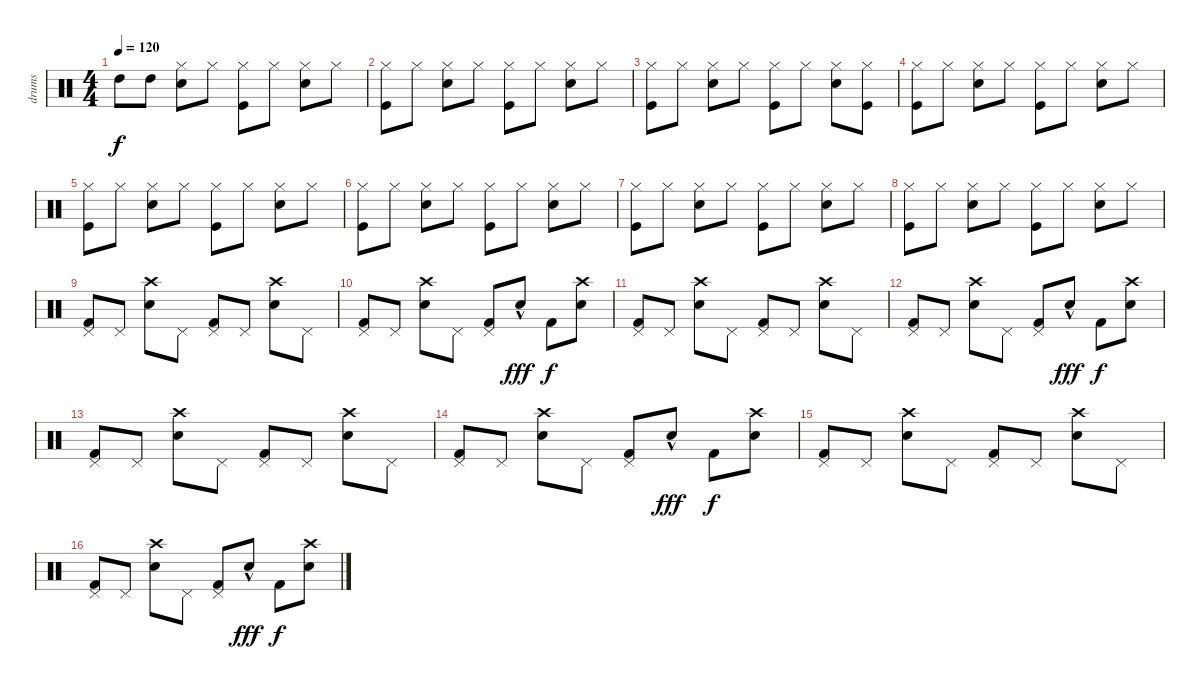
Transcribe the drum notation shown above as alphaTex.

\track ("drums" "drums") {instrument percussion}
\staff {score}
\articulation defaults
\ts (4 4)
\tempo 120
\clef neutral
\ks c "High Tom (hit)".8{dy f} "High Tom (hit)".8
("Hi-Hat (closed)" "Snare (hit) 2").8 "Hi-Hat (closed)".8 ("Hi-Hat (closed)" "Kick (hit)").8 "Hi-Hat (closed)".8 ("Hi-Hat (closed)" "Snare (hit) 2").8 "Hi-Hat (closed)".8 |
("Hi-Hat (closed)" "Kick (hit)").8 "Hi-Hat (closed)".8 ("Hi-Hat (closed)" "Snare (hit) 2").8 "Hi-Hat (closed)".8 ("Hi-Hat (closed)" "Kick (hit)").8 "Hi-Hat (closed)".8 ("Hi-Hat (closed)" "Snare (hit) 2").8 "Hi-Hat (closed)".8 |
("Hi-Hat (closed)" "Kick (hit)").8 "Hi-Hat (closed)".8 ("Hi-Hat (closed)" "Snare (hit) 2").8 "Hi-Hat (closed)".8 ("Hi-Hat (closed)" "Kick (hit)").8 "Hi-Hat (closed)".8 ("Hi-Hat (closed)" "Snare (hit) 2").8 ("Hi-Hat (closed)" "Kick (hit)").8 |
("Hi-Hat (closed)" "Kick (hit)").8 "Hi-Hat (closed)".8 ("Hi-Hat (closed)" "Snare (hit) 2").8 "Hi-Hat (closed)".8 ("Hi-Hat (closed)" "Kick (hit)").8 "Hi-Hat (closed)".8 ("Hi-Hat (closed)" "Snare (hit) 2").8 "Hi-Hat (closed)".8 |
("Hi-Hat (closed)" "Kick (hit)").8 "Hi-Hat (closed)".8 ("Hi-Hat (closed)" "Snare (hit) 2").8 "Hi-Hat (closed)".8 ("Hi-Hat (closed)" "Kick (hit)").8 "Hi-Hat (closed)".8 ("Hi-Hat (closed)" "Snare (hit) 2").8 "Hi-Hat (closed)".8 |
("Hi-Hat (closed)" "Kick (hit)").8 "Hi-Hat (closed)".8 ("Hi-Hat (closed)" "Snare (hit) 2").8 "Hi-Hat (closed)".8 ("Hi-Hat (closed)" "Kick (hit)").8 "Hi-Hat (closed)".8 ("Hi-Hat (closed)" "Snare (hit) 2").8 "Hi-Hat (closed)".8 |
("Hi-Hat (closed)" "Kick (hit)").8 "Hi-Hat (closed)".8 ("Hi-Hat (closed)" "Snare (hit) 2").8 "Hi-Hat (closed)".8 ("Hi-Hat (closed)" "Kick (hit)").8 "Hi-Hat (closed)".8 ("Hi-Hat (closed)" "Snare (hit) 2").8 "Hi-Hat (closed)".8 |
("Hi-Hat (closed)" "Kick (hit)").8 "Hi-Hat (closed)".8 ("Hi-Hat (closed)" "Snare (hit) 2").8 "Hi-Hat (closed)".8 ("Hi-Hat (closed)" "Kick (hit)").8 "Hi-Hat (closed)".8 ("Hi-Hat (closed)" "Snare (hit) 2").8 "Hi-Hat (closed)".8 |
("Pedal Hi-Hat (hit)" "Kick (hit) 2").8 "Pedal Hi-Hat (hit)".8 ("Crash high (hit)" "Electric Snare (hit)").8 "Pedal Hi-Hat (hit)".8 ("Pedal Hi-Hat (hit)" "Kick (hit) 2").8 "Pedal Hi-Hat (hit)".8 ("Crash high (hit)" "Electric Snare (hit)").8 "Pedal Hi-Hat (hit)".8 |
("Pedal Hi-Hat (hit)" "Kick (hit) 2").8 "Pedal Hi-Hat (hit)".8 ("Crash high (hit)" "Electric Snare (hit)").8 "Pedal Hi-Hat (hit)".8 ("Pedal Hi-Hat (hit)" "Kick (hit) 2").8 "Electric Snare (hit)"{hac}.8{dy fff} "Kick (hit) 2".8{dy f} ("Crash high (hit)" "Electric Snare (hit)").8 |
("Pedal Hi-Hat (hit)" "Kick (hit) 2").8 "Pedal Hi-Hat (hit)".8 ("Crash high (hit)" "Electric Snare (hit)").8 "Pedal Hi-Hat (hit)".8 ("Pedal Hi-Hat (hit)" "Kick (hit) 2").8 "Pedal Hi-Hat (hit)".8 ("Crash high (hit)" "Electric Snare (hit)").8 "Pedal Hi-Hat (hit)".8 |
("Pedal Hi-Hat (hit)" "Kick (hit) 2").8 "Pedal Hi-Hat (hit)".8 ("Crash high (hit)" "Electric Snare (hit)").8 "Pedal Hi-Hat (hit)".8 ("Pedal Hi-Hat (hit)" "Kick (hit) 2").8 "Electric Snare (hit)"{hac}.8{dy fff} "Kick (hit) 2".8{dy f} ("Crash high (hit)" "Electric Snare (hit)").8 |
("Pedal Hi-Hat (hit)" "Kick (hit) 2").8 "Pedal Hi-Hat (hit)".8 ("Crash high (hit)" "Electric Snare (hit)").8 "Pedal Hi-Hat (hit)".8 ("Pedal Hi-Hat (hit)" "Kick (hit) 2").8 "Pedal Hi-Hat (hit)".8 ("Crash high (hit)" "Electric Snare (hit)").8 "Pedal Hi-Hat (hit)".8 |
("Pedal Hi-Hat (hit)" "Kick (hit) 2").8 "Pedal Hi-Hat (hit)".8 ("Crash high (hit)" "Electric Snare (hit)").8 "Pedal Hi-Hat (hit)".8 ("Pedal Hi-Hat (hit)" "Kick (hit) 2").8 "Electric Snare (hit)"{hac}.8{dy fff} "Kick (hit) 2".8{dy f} ("Crash high (hit)" "Electric Snare (hit)").8 |
("Pedal Hi-Hat (hit)" "Kick (hit) 2").8 "Pedal Hi-Hat (hit)".8 ("Crash high (hit)" "Electric Snare (hit)").8 "Pedal Hi-Hat (hit)".8 ("Pedal Hi-Hat (hit)" "Kick (hit) 2").8 "Pedal Hi-Hat (hit)".8 ("Crash high (hit)" "Electric Snare (hit)").8 "Pedal Hi-Hat (hit)".8 |
("Pedal Hi-Hat (hit)" "Kick (hit) 2").8 "Pedal Hi-Hat (hit)".8 ("Crash high (hit)" "Electric Snare (hit)").8 "Pedal Hi-Hat (hit)".8 ("Pedal Hi-Hat (hit)" "Kick (hit) 2").8 "Electric Snare (hit)"{hac}.8{dy fff} "Kick (hit) 2".8{dy f} ("Crash high (hit)" "Electric Snare (hit)").8
